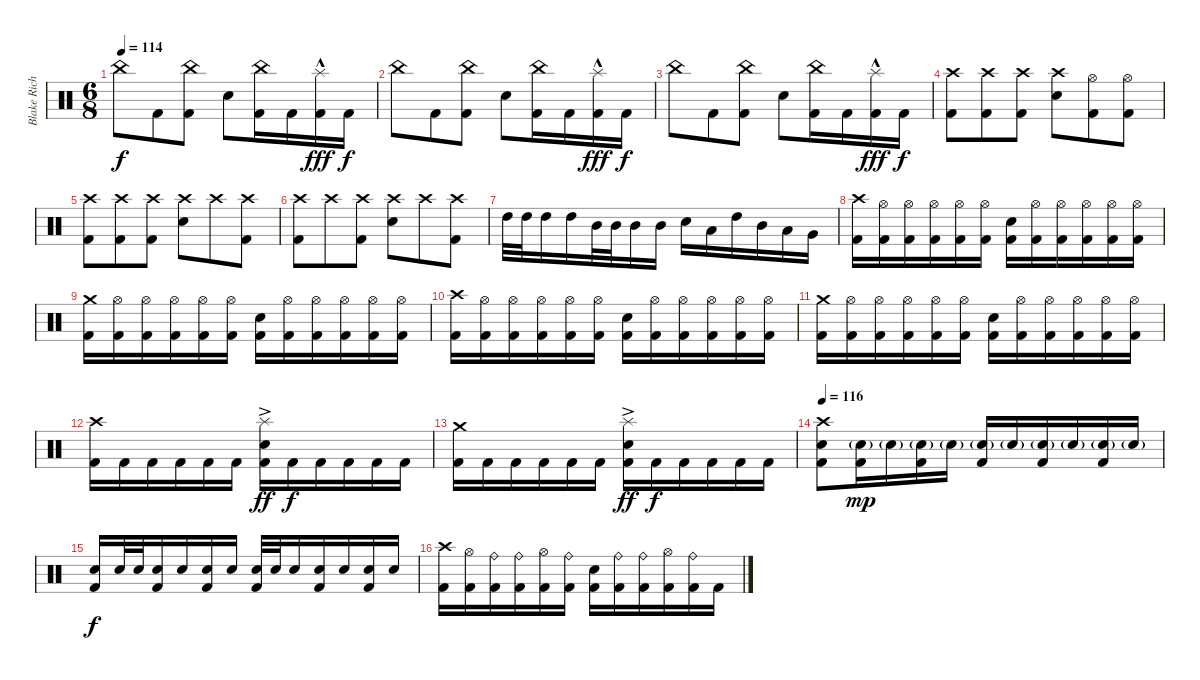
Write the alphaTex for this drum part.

\track ("Blake Richardson" "Blake Rich") {instrument percussion}
\staff {score}
\articulation defaults
\ts (6 8)
\tempo 114
\clef neutral
\ks c "China (hit)".8{dy f} "Kick (hit) 2".8
("China (hit)" "Kick (hit) 2").8 "Electric Snare (hit)".8 ("China (hit)" "Kick (hit) 2").16 "Kick (hit) 2".16 ("Splash (hit)"{hac} "Kick (hit) 2").16{dy fff} "Kick (hit) 2".16{dy f} |
"China (hit)".8 "Kick (hit) 2".8 ("China (hit)" "Kick (hit) 2").8 "Electric Snare (hit)".8 ("China (hit)" "Kick (hit) 2").16 "Kick (hit) 2".16 ("Splash (hit)"{hac} "Kick (hit) 2").16{dy fff} "Kick (hit) 2".16{dy f} |
"China (hit)".8 "Kick (hit) 2".8 ("China (hit)" "Kick (hit) 2").8 "Electric Snare (hit)".8 ("China (hit)" "Kick (hit) 2").16 "Kick (hit) 2".16 ("Splash (hit)"{hac} "Kick (hit) 2").16{dy fff} "Kick (hit) 2".16{dy f} |
("Crash high (hit)" "Kick (hit) 2").8 ("Crash high (hit)" "Kick (hit) 2").8 ("Crash high (hit)" "Kick (hit) 2").8 ("Crash high (hit)" "Electric Snare (hit)").8 ("Hi-Hat (open)" "Kick (hit) 2").8 ("Hi-Hat (open)" "Kick (hit) 2").8 |
("Crash high (hit)" "Kick (hit) 2").8 ("Crash high (hit)" "Kick (hit) 2").8 ("Crash high (hit)" "Kick (hit) 2").8 ("Crash high (hit)" "Electric Snare (hit)").8 "Crash high (hit)".8 ("Crash high (hit)" "Kick (hit) 2").8 |
("Crash high (hit)" "Kick (hit) 2").8 "Crash high (hit)".8 ("Crash high (hit)" "Kick (hit) 2").8 ("Crash high (hit)" "Electric Snare (hit)").8 "Crash high (hit)".8 ("Crash high (hit)" "Kick (hit) 2").8 |
"High Tom (hit)".32 "High Tom (hit)".32 "High Tom (hit)".16 "High Tom (hit)".16 "Mid Tom (hit)".32 "Mid Tom (hit)".32 "Mid Tom (hit)".16 "Mid Tom (hit)".16 "Electric Snare (hit)".16 "Low Tom (hit)".16 "High Tom (hit)".16 "Mid Tom (hit)".16 "Low Tom (hit)".16 "Very Low Tom (hit)".16 |
("Crash high (hit)" "Kick (hit) 2").16 ("Hi-Hat (open)" "Kick (hit) 2").16 ("Hi-Hat (open)" "Kick (hit) 2").16 ("Hi-Hat (open)" "Kick (hit) 2").16 ("Hi-Hat (open)" "Kick (hit) 2").16 ("Hi-Hat (open)" "Kick (hit) 2").16 ("Electric Snare (hit)" "Kick (hit) 2").16 ("Hi-Hat (open)" "Kick (hit) 2").16 ("Hi-Hat (open)" "Kick (hit) 2").16 ("Hi-Hat (open)" "Kick (hit) 2").16 ("Hi-Hat (open)" "Kick (hit) 2").16 ("Hi-Hat (open)" "Kick (hit) 2").16 |
("Crash medium (hit)" "Kick (hit) 2").16 ("Hi-Hat (open)" "Kick (hit) 2").16 ("Hi-Hat (open)" "Kick (hit) 2").16 ("Hi-Hat (open)" "Kick (hit) 2").16 ("Hi-Hat (open)" "Kick (hit) 2").16 ("Hi-Hat (open)" "Kick (hit) 2").16 ("Electric Snare (hit)" "Kick (hit) 2").16 ("Hi-Hat (open)" "Kick (hit) 2").16 ("Hi-Hat (open)" "Kick (hit) 2").16 ("Hi-Hat (open)" "Kick (hit) 2").16 ("Hi-Hat (open)" "Kick (hit) 2").16 ("Hi-Hat (open)" "Kick (hit) 2").16 |
("Crash high (hit)" "Kick (hit) 2").16 ("Hi-Hat (open)" "Kick (hit) 2").16 ("Hi-Hat (open)" "Kick (hit) 2").16 ("Hi-Hat (open)" "Kick (hit) 2").16 ("Hi-Hat (open)" "Kick (hit) 2").16 ("Hi-Hat (open)" "Kick (hit) 2").16 ("Electric Snare (hit)" "Kick (hit) 2").16 ("Hi-Hat (open)" "Kick (hit) 2").16 ("Hi-Hat (open)" "Kick (hit) 2").16 ("Hi-Hat (open)" "Kick (hit) 2").16 ("Hi-Hat (open)" "Kick (hit) 2").16 ("Hi-Hat (open)" "Kick (hit) 2").16 |
("Crash medium (hit)" "Kick (hit) 2").16 ("Hi-Hat (open)" "Kick (hit) 2").16 ("Hi-Hat (open)" "Kick (hit) 2").16 ("Hi-Hat (open)" "Kick (hit) 2").16 ("Hi-Hat (open)" "Kick (hit) 2").16 ("Hi-Hat (open)" "Kick (hit) 2").16 ("Electric Snare (hit)" "Kick (hit) 2").16 ("Hi-Hat (open)" "Kick (hit) 2").16 ("Hi-Hat (open)" "Kick (hit) 2").16 ("Hi-Hat (open)" "Kick (hit) 2").16 ("Hi-Hat (open)" "Kick (hit) 2").16 ("Hi-Hat (open)" "Kick (hit) 2").16 |
("Crash high (hit)" "Kick (hit) 2").16 "Kick (hit) 2".16 "Kick (hit) 2".16 "Kick (hit) 2".16 "Kick (hit) 2".16 "Kick (hit) 2".16 ("Splash (hit)"{ac} "Electric Snare (hit)" "Kick (hit) 2").16{dy ff} "Kick (hit) 2".16{dy f} "Kick (hit) 2".16 "Kick (hit) 2".16 "Kick (hit) 2".16 "Kick (hit) 2".16 |
("Crash medium (hit)" "Kick (hit) 2").16 "Kick (hit) 2".16 "Kick (hit) 2".16 "Kick (hit) 2".16 "Kick (hit) 2".16 "Kick (hit) 2".16 ("Splash (hit)"{ac} "Electric Snare (hit)" "Kick (hit) 2").16{dy ff} "Kick (hit) 2".16{dy f} "Kick (hit) 2".16 "Kick (hit) 2".16 "Kick (hit) 2".16 "Kick (hit) 2".16 |
\tempo 116
("Crash high (hit)" "Electric Snare (hit)" "Kick (hit) 2").8 ("Electric Snare (hit)"{g} "Kick (hit) 2").16{dy mp} "Electric Snare (hit)"{g}.16 ("Electric Snare (hit)"{g} "Kick (hit) 2").16 "Electric Snare (hit)"{g}.16 ("Electric Snare (hit)"{g} "Kick (hit) 2").16 "Electric Snare (hit)"{g}.16 ("Electric Snare (hit)"{g} "Kick (hit) 2").16 "Electric Snare (hit)"{g}.16 ("Electric Snare (hit)"{g} "Kick (hit) 2").16 "Electric Snare (hit)"{g}.16 |
("Electric Snare (hit)" "Kick (hit) 2").16{dy f} "Electric Snare (hit)".32 "Electric Snare (hit)".32 ("Electric Snare (hit)" "Kick (hit) 2").16 "Electric Snare (hit)".16 ("Electric Snare (hit)" "Kick (hit) 2").16 "Electric Snare (hit)".16 ("Electric Snare (hit)" "Kick (hit) 2").32 "Electric Snare (hit)".32 "Electric Snare (hit)".16 ("Electric Snare (hit)" "Kick (hit) 2").16 "Electric Snare (hit)".16 ("Electric Snare (hit)" "Kick (hit) 2").16 "Electric Snare (hit)".16 |
("Crash high (hit)" "Kick (hit) 2").16 ("Hi-Hat (open)" "Kick (hit) 2").16 ("Ride (bell)" "Kick (hit) 2").16 ("Ride (bell)" "Kick (hit) 2").16 ("Hi-Hat (open)" "Kick (hit) 2").16 ("Ride (bell)" "Kick (hit) 2").16 ("Electric Snare (hit)" "Kick (hit) 2").16 ("Ride (bell)" "Kick (hit) 2").16 ("Ride (bell)" "Kick (hit) 2").16 ("Hi-Hat (open)" "Kick (hit) 2").16 ("Ride (bell)" "Kick (hit) 2").16 "Kick (hit) 2".16
